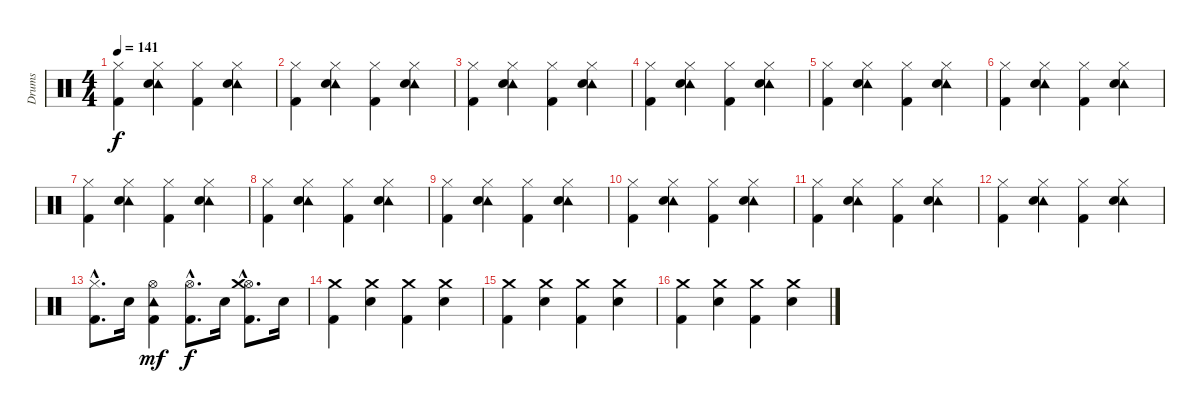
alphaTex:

\track ("Drums" "Drums") {instrument percussion}
\staff {score}
\articulation defaults
\ts (4 4)
\tempo 141
\clef neutral
\ks c
("Hi-Hat (closed)" "Kick (hit) 2").4{dy f} ("Hi-Hat (closed)" "Tambourine (hit)" "Snare (hit) 2").4 ("Hi-Hat (closed)" "Kick (hit) 2").4 ("Hi-Hat (closed)" "Tambourine (hit)" "Snare (hit) 2").4 |
("Hi-Hat (closed)" "Kick (hit) 2").4 ("Hi-Hat (closed)" "Tambourine (hit)" "Snare (hit) 2").4 ("Hi-Hat (closed)" "Kick (hit) 2").4 ("Hi-Hat (closed)" "Tambourine (hit)" "Snare (hit) 2").4 |
("Hi-Hat (closed)" "Kick (hit) 2").4 ("Hi-Hat (closed)" "Tambourine (hit)" "Snare (hit) 2").4 ("Hi-Hat (closed)" "Kick (hit) 2").4 ("Hi-Hat (closed)" "Tambourine (hit)" "Snare (hit) 2").4 |
("Hi-Hat (closed)" "Kick (hit) 2").4 ("Hi-Hat (closed)" "Tambourine (hit)" "Snare (hit) 2").4 ("Hi-Hat (closed)" "Kick (hit) 2").4 ("Hi-Hat (closed)" "Tambourine (hit)" "Snare (hit) 2").4 |
("Hi-Hat (closed)" "Kick (hit) 2").4 ("Hi-Hat (closed)" "Tambourine (hit)" "Snare (hit) 2").4 ("Hi-Hat (closed)" "Kick (hit) 2").4 ("Hi-Hat (closed)" "Tambourine (hit)" "Snare (hit) 2").4 |
("Hi-Hat (closed)" "Kick (hit) 2").4 ("Hi-Hat (closed)" "Tambourine (hit)" "Snare (hit) 2").4 ("Hi-Hat (closed)" "Kick (hit) 2").4 ("Hi-Hat (closed)" "Tambourine (hit)" "Snare (hit) 2").4 |
("Hi-Hat (closed)" "Kick (hit) 2").4 ("Hi-Hat (closed)" "Tambourine (hit)" "Snare (hit) 2").4 ("Hi-Hat (closed)" "Kick (hit) 2").4 ("Hi-Hat (closed)" "Tambourine (hit)" "Snare (hit) 2").4 |
("Hi-Hat (closed)" "Kick (hit) 2").4 ("Hi-Hat (closed)" "Tambourine (hit)" "Snare (hit) 2").4 ("Hi-Hat (closed)" "Kick (hit) 2").4 ("Hi-Hat (closed)" "Tambourine (hit)" "Snare (hit) 2").4 |
("Hi-Hat (closed)" "Kick (hit) 2").4 ("Hi-Hat (closed)" "Tambourine (hit)" "Snare (hit) 2").4 ("Hi-Hat (closed)" "Kick (hit) 2").4 ("Hi-Hat (closed)" "Tambourine (hit)" "Snare (hit) 2").4 |
("Hi-Hat (closed)" "Kick (hit) 2").4 ("Hi-Hat (closed)" "Tambourine (hit)" "Snare (hit) 2").4 ("Hi-Hat (closed)" "Kick (hit) 2").4 ("Hi-Hat (closed)" "Tambourine (hit)" "Snare (hit) 2").4 |
("Hi-Hat (closed)" "Kick (hit) 2").4 ("Hi-Hat (closed)" "Tambourine (hit)" "Snare (hit) 2").4 ("Hi-Hat (closed)" "Kick (hit) 2").4 ("Hi-Hat (closed)" "Tambourine (hit)" "Snare (hit) 2").4 |
("Hi-Hat (closed)" "Kick (hit) 2").4 ("Hi-Hat (closed)" "Tambourine (hit)" "Snare (hit) 2").4 ("Hi-Hat (closed)" "Kick (hit) 2").4 ("Hi-Hat (closed)" "Tambourine (hit)" "Snare (hit) 2").4 |
("Hi-Hat (closed)"{hac} "Kick (hit) 2"{hac}).8{d} "Snare (hit) 2".16 ("Hi-Hat (open)" "Tambourine (hit)" "Kick (hit) 2").4{dy mf} ("Hi-Hat (open)"{hac} "Kick (hit) 2"{hac}).8{d dy f} "Snare (hit) 2".16 ("Hi-Hat (open)"{hac} "Crash medium (hit)"{hac} "Kick (hit) 2"{hac}).8{d} "Snare (hit) 2".16 |
("Crash medium (hit)" "Kick (hit) 2").4 ("Crash medium (hit)" "Snare (hit) 2").4 ("Crash medium (hit)" "Kick (hit) 2").4 ("Crash medium (hit)" "Snare (hit) 2").4 |
("Crash medium (hit)" "Kick (hit) 2").4 ("Crash medium (hit)" "Snare (hit) 2").4 ("Crash medium (hit)" "Kick (hit) 2").4 ("Crash medium (hit)" "Snare (hit) 2").4 |
("Crash medium (hit)" "Kick (hit) 2").4 ("Crash medium (hit)" "Snare (hit) 2").4 ("Crash medium (hit)" "Kick (hit) 2").4 ("Crash medium (hit)" "Snare (hit) 2").4
